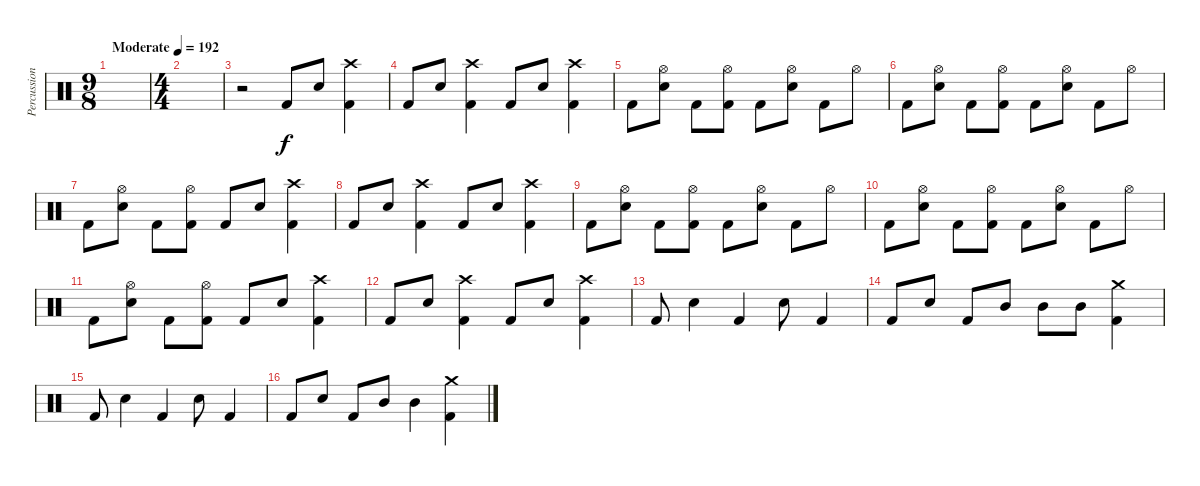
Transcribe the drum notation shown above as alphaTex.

\track ("Percussion" "Percussion") {instrument percussion}
\staff {score}
\articulation defaults
\ts (9 8)
\tempo (192 "Moderate")
\clef neutral
\ks c
|
\ts (4 4)
|
r.2 "Kick (hit) 2".8 "Electric Snare (hit)".8 ("Crash high (hit)" "Kick (hit) 2").4 |
"Kick (hit) 2".8 "Electric Snare (hit)".8 ("Crash high (hit)" "Kick (hit) 2").4 "Kick (hit) 2".8 "Electric Snare (hit)".8 ("Crash high (hit)" "Kick (hit) 2").4 |
"Kick (hit) 2".8 ("Hi-Hat (open)" "Electric Snare (hit)").8 "Kick (hit) 2".8 ("Hi-Hat (open)" "Kick (hit) 2").8 "Kick (hit) 2".8 ("Hi-Hat (open)" "Electric Snare (hit)").8 "Kick (hit) 2".8 "Hi-Hat (open)".8 |
"Kick (hit) 2".8 ("Hi-Hat (open)" "Electric Snare (hit)").8 "Kick (hit) 2".8 ("Hi-Hat (open)" "Kick (hit) 2").8 "Kick (hit) 2".8 ("Hi-Hat (open)" "Electric Snare (hit)").8 "Kick (hit) 2".8 "Hi-Hat (open)".8 |
"Kick (hit) 2".8 ("Hi-Hat (open)" "Electric Snare (hit)").8 "Kick (hit) 2".8 ("Hi-Hat (open)" "Kick (hit) 2").8 "Kick (hit) 2".8 "Electric Snare (hit)".8 ("Crash high (hit)" "Kick (hit) 2").4 |
"Kick (hit) 2".8 "Electric Snare (hit)".8 ("Crash high (hit)" "Kick (hit) 2").4 "Kick (hit) 2".8 "Electric Snare (hit)".8 ("Crash high (hit)" "Kick (hit) 2").4 |
"Kick (hit) 2".8 ("Hi-Hat (open)" "Electric Snare (hit)").8 "Kick (hit) 2".8 ("Hi-Hat (open)" "Kick (hit) 2").8 "Kick (hit) 2".8 ("Hi-Hat (open)" "Electric Snare (hit)").8 "Kick (hit) 2".8 "Hi-Hat (open)".8 |
"Kick (hit) 2".8 ("Hi-Hat (open)" "Electric Snare (hit)").8 "Kick (hit) 2".8 ("Hi-Hat (open)" "Kick (hit) 2").8 "Kick (hit) 2".8 ("Hi-Hat (open)" "Electric Snare (hit)").8 "Kick (hit) 2".8 "Hi-Hat (open)".8 |
"Kick (hit) 2".8 ("Hi-Hat (open)" "Electric Snare (hit)").8 "Kick (hit) 2".8 ("Hi-Hat (open)" "Kick (hit) 2").8 "Kick (hit) 2".8 "Electric Snare (hit)".8 ("Crash high (hit)" "Kick (hit) 2").4 |
"Kick (hit) 2".8 "Electric Snare (hit)".8 ("Crash high (hit)" "Kick (hit) 2").4 "Kick (hit) 2".8 "Electric Snare (hit)".8 ("Crash high (hit)" "Kick (hit) 2").4 |
"Kick (hit) 2".8 "Electric Snare (hit)".4 "Kick (hit) 2".4 "Electric Snare (hit)".8 "Kick (hit) 2".4 |
"Kick (hit) 2".8 "Electric Snare (hit)".8 "Kick (hit) 2".8 "Mid Tom (hit)".8 "Mid Tom (hit)".8 "Mid Tom (hit)".8 ("Crash medium (hit)" "Kick (hit) 2").4 |
"Kick (hit) 2".8 "Electric Snare (hit)".4 "Kick (hit) 2".4 "Electric Snare (hit)".8 "Kick (hit) 2".4 |
"Kick (hit) 2".8 "Electric Snare (hit)".8 "Kick (hit) 2".8 "Mid Tom (hit)".8 "Mid Tom (hit)".4 ("Crash medium (hit)" "Kick (hit) 2").4
